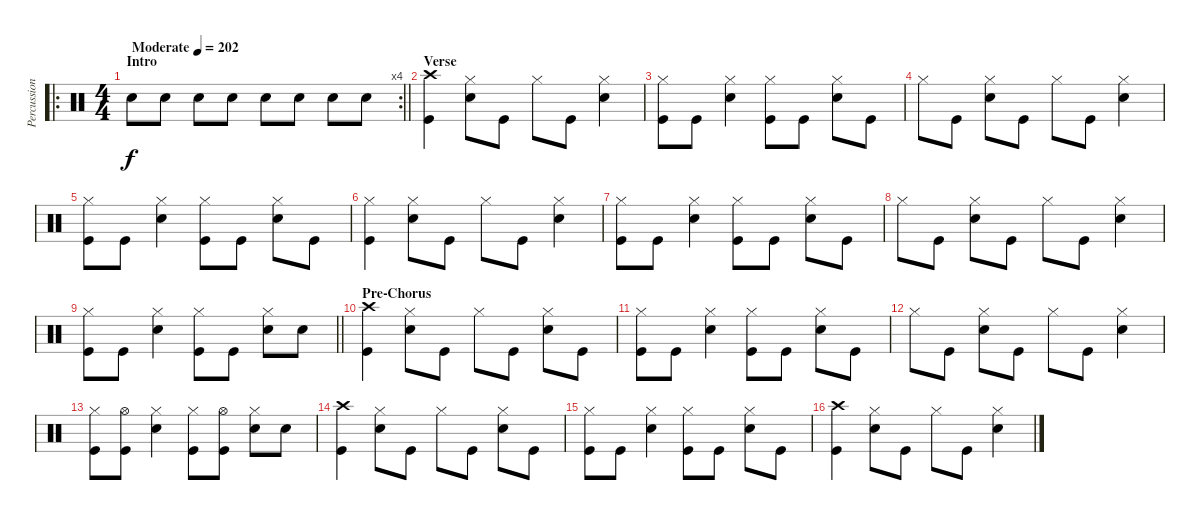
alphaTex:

\track ("Percussion" "Percussion") {instrument percussion}
\staff {score}
\articulation defaults
\ro
\rc 4
\ts (4 4)
\section ("" "Intro")
\tempo (202 "Moderate")
\clef neutral
\barLineRight lightlight
\ks c "Snare (hit) 2".8{dy f} "Snare (hit) 2".8 "Snare (hit) 2".8 "Snare (hit) 2".8 "Snare (hit) 2".8 "Snare (hit) 2".8 "Snare (hit) 2".8 "Snare (hit) 2".8
|
\section ("" "Verse")
("Crash high (hit)" "Kick (hit)").4 ("Hi-Hat (closed)" "Snare (hit) 2").8 "Kick (hit)".8 "Hi-Hat (closed)".8 "Kick (hit)".8 ("Hi-Hat (closed)" "Snare (hit) 2").4 |
("Hi-Hat (closed)" "Kick (hit)").8 "Kick (hit)".8 ("Hi-Hat (closed)" "Snare (hit) 2").4 ("Hi-Hat (closed)" "Kick (hit)").8 "Kick (hit)".8 ("Hi-Hat (closed)" "Snare (hit) 2").8 "Kick (hit)".8 |
"Hi-Hat (closed)".8 "Kick (hit)".8 ("Hi-Hat (closed)" "Snare (hit) 2").8 "Kick (hit)".8 "Hi-Hat (closed)".8 "Kick (hit)".8 ("Hi-Hat (closed)" "Snare (hit) 2").4 |
("Hi-Hat (closed)" "Kick (hit)").8 "Kick (hit)".8 ("Hi-Hat (closed)" "Snare (hit) 2").4 ("Hi-Hat (closed)" "Kick (hit)").8 "Kick (hit)".8 ("Hi-Hat (closed)" "Snare (hit) 2").8 "Kick (hit)".8 |
("Hi-Hat (closed)" "Kick (hit)").4 ("Hi-Hat (closed)" "Snare (hit) 2").8 "Kick (hit)".8 "Hi-Hat (closed)".8 "Kick (hit)".8 ("Hi-Hat (closed)" "Snare (hit) 2").4 |
("Hi-Hat (closed)" "Kick (hit)").8 "Kick (hit)".8 ("Hi-Hat (closed)" "Snare (hit) 2").4 ("Hi-Hat (closed)" "Kick (hit)").8 "Kick (hit)".8 ("Hi-Hat (closed)" "Snare (hit) 2").8 "Kick (hit)".8 |
"Hi-Hat (closed)".8 "Kick (hit)".8 ("Hi-Hat (closed)" "Snare (hit) 2").8 "Kick (hit)".8 "Hi-Hat (closed)".8 "Kick (hit)".8 ("Hi-Hat (closed)" "Snare (hit) 2").4 |
\barLineRight lightlight
("Hi-Hat (closed)" "Kick (hit)").8 "Kick (hit)".8 ("Hi-Hat (closed)" "Snare (hit) 2").4 ("Hi-Hat (closed)" "Kick (hit)").8 "Kick (hit)".8 ("Hi-Hat (closed)" "Snare (hit) 2").8 "Snare (hit) 2".8 |
\section ("" "Pre-Chorus")
("Crash high (hit)" "Kick (hit)").4 ("Hi-Hat (closed)" "Snare (hit) 2").8 "Kick (hit)".8 "Hi-Hat (closed)".8 "Kick (hit)".8 ("Hi-Hat (closed)" "Snare (hit) 2").8 "Kick (hit)".8 |
("Hi-Hat (closed)" "Kick (hit)").8 "Kick (hit)".8 ("Hi-Hat (closed)" "Snare (hit) 2").4 ("Hi-Hat (closed)" "Kick (hit)").8 "Kick (hit)".8 ("Hi-Hat (closed)" "Snare (hit) 2").8 "Kick (hit)".8 |
"Hi-Hat (closed)".8 "Kick (hit)".8 ("Hi-Hat (closed)" "Snare (hit) 2").8 "Kick (hit)".8 "Hi-Hat (closed)".8 "Kick (hit)".8 ("Hi-Hat (closed)" "Snare (hit) 2").4 |
("Hi-Hat (closed)" "Kick (hit)").8 ("Hi-Hat (open)" "Kick (hit)").8 ("Hi-Hat (closed)" "Snare (hit) 2").4 ("Hi-Hat (closed)" "Kick (hit)").8 ("Hi-Hat (open)" "Kick (hit)").8 ("Hi-Hat (closed)" "Snare (hit) 2").8 "Snare (hit) 2".8 |
("Crash high (hit)" "Kick (hit)").4 ("Hi-Hat (closed)" "Snare (hit) 2").8 "Kick (hit)".8 "Hi-Hat (closed)".8 "Kick (hit)".8 ("Hi-Hat (closed)" "Snare (hit) 2").8 "Kick (hit)".8 |
("Hi-Hat (closed)" "Kick (hit)").8 "Kick (hit)".8 ("Hi-Hat (closed)" "Snare (hit) 2").4 ("Hi-Hat (closed)" "Kick (hit)").8 "Kick (hit)".8 ("Hi-Hat (closed)" "Snare (hit) 2").8 "Kick (hit)".8 |
("Crash high (hit)" "Kick (hit)").4 ("Hi-Hat (closed)" "Snare (hit) 2").8 "Kick (hit)".8 "Hi-Hat (closed)".8 "Kick (hit)".8 ("Hi-Hat (closed)" "Snare (hit) 2").4
